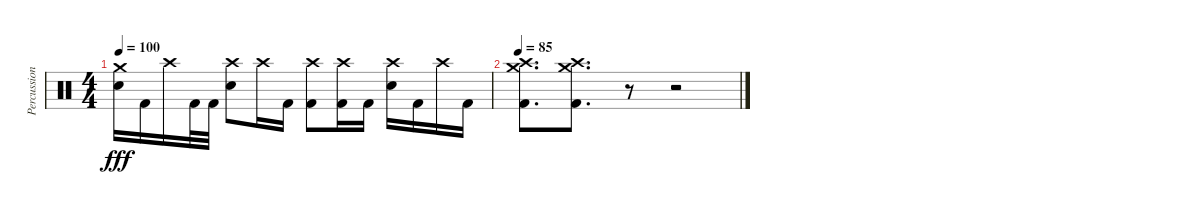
\track ("Percussion" "Percussion") {instrument percussion}
\staff {score}
\articulation defaults
\ts (4 4)
\tempo 100
\clef neutral
\ks c
("Crash medium (hit)" "Snare (hit) 2").16{dy fff} "Kick (hit) 2".16 "Crash high (hit)".16 "Kick (hit) 2".32 "Kick (hit) 2".32 ("Crash high (hit)" "Snare (hit) 2").8 "Crash high (hit)".16 "Kick (hit) 2".16 ("Crash high (hit)" "Kick (hit) 2").8 ("Crash high (hit)" "Kick (hit) 2").16 "Kick (hit) 2".16 ("Crash high (hit)" "Snare (hit) 2").16 "Kick (hit) 2".16 "Crash high (hit)".16 "Kick (hit) 2".16 |
\tempo 85
("Crash medium (hit)" "Crash high (hit)" "Kick (hit) 2").8{d} ("Crash medium (hit)" "Crash high (hit)" "Kick (hit) 2").8{d} r.8 r.2
